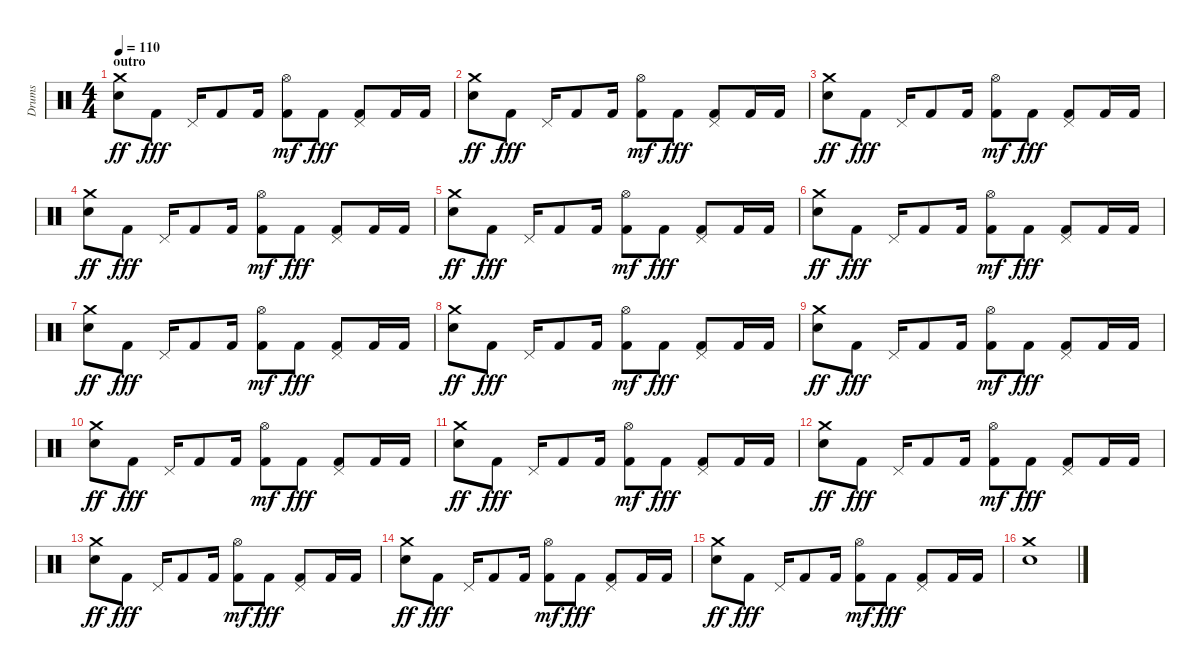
\track ("Drums" "Drums") {instrument percussion}
\staff {score}
\articulation defaults
\ts (4 4)
\section ("" "outro")
\tempo 110
\clef neutral
\ks c
("Electric Snare (hit)" "Crash medium (hit)").8{dy ff} "Kick (hit) 2".8{dy fff} "Pedal Hi-Hat (hit)".16 "Kick (hit) 2".8 "Kick (hit) 2".16 ("Kick (hit) 2" "Hi-Hat (open)").8{dy mf} "Kick (hit) 2".8{dy fff} ("Kick (hit) 2" "Pedal Hi-Hat (hit)").8 "Kick (hit) 2".16 "Kick (hit) 2".16 |
("Electric Snare (hit)" "Crash medium (hit)").8{dy ff} "Kick (hit) 2".8{dy fff} "Pedal Hi-Hat (hit)".16 "Kick (hit) 2".8 "Kick (hit) 2".16 ("Kick (hit) 2" "Hi-Hat (open)").8{dy mf} "Kick (hit) 2".8{dy fff} ("Kick (hit) 2" "Pedal Hi-Hat (hit)").8 "Kick (hit) 2".16 "Kick (hit) 2".16 |
("Electric Snare (hit)" "Crash medium (hit)").8{dy ff} "Kick (hit) 2".8{dy fff} "Pedal Hi-Hat (hit)".16 "Kick (hit) 2".8 "Kick (hit) 2".16 ("Kick (hit) 2" "Hi-Hat (open)").8{dy mf} "Kick (hit) 2".8{dy fff} ("Kick (hit) 2" "Pedal Hi-Hat (hit)").8 "Kick (hit) 2".16 "Kick (hit) 2".16 |
("Electric Snare (hit)" "Crash medium (hit)").8{dy ff} "Kick (hit) 2".8{dy fff} "Pedal Hi-Hat (hit)".16 "Kick (hit) 2".8 "Kick (hit) 2".16 ("Kick (hit) 2" "Hi-Hat (open)").8{dy mf} "Kick (hit) 2".8{dy fff} ("Kick (hit) 2" "Pedal Hi-Hat (hit)").8 "Kick (hit) 2".16 "Kick (hit) 2".16 |
("Electric Snare (hit)" "Crash medium (hit)").8{dy ff} "Kick (hit) 2".8{dy fff} "Pedal Hi-Hat (hit)".16 "Kick (hit) 2".8 "Kick (hit) 2".16 ("Kick (hit) 2" "Hi-Hat (open)").8{dy mf} "Kick (hit) 2".8{dy fff} ("Kick (hit) 2" "Pedal Hi-Hat (hit)").8 "Kick (hit) 2".16 "Kick (hit) 2".16 |
("Electric Snare (hit)" "Crash medium (hit)").8{dy ff} "Kick (hit) 2".8{dy fff} "Pedal Hi-Hat (hit)".16 "Kick (hit) 2".8 "Kick (hit) 2".16 ("Kick (hit) 2" "Hi-Hat (open)").8{dy mf} "Kick (hit) 2".8{dy fff} ("Kick (hit) 2" "Pedal Hi-Hat (hit)").8 "Kick (hit) 2".16 "Kick (hit) 2".16 |
("Electric Snare (hit)" "Crash medium (hit)").8{dy ff} "Kick (hit) 2".8{dy fff} "Pedal Hi-Hat (hit)".16 "Kick (hit) 2".8 "Kick (hit) 2".16 ("Kick (hit) 2" "Hi-Hat (open)").8{dy mf} "Kick (hit) 2".8{dy fff} ("Kick (hit) 2" "Pedal Hi-Hat (hit)").8 "Kick (hit) 2".16 "Kick (hit) 2".16 |
("Electric Snare (hit)" "Crash medium (hit)").8{dy ff} "Kick (hit) 2".8{dy fff} "Pedal Hi-Hat (hit)".16 "Kick (hit) 2".8 "Kick (hit) 2".16 ("Kick (hit) 2" "Hi-Hat (open)").8{dy mf} "Kick (hit) 2".8{dy fff} ("Kick (hit) 2" "Pedal Hi-Hat (hit)").8 "Kick (hit) 2".16 "Kick (hit) 2".16 |
("Electric Snare (hit)" "Crash medium (hit)").8{dy ff} "Kick (hit) 2".8{dy fff} "Pedal Hi-Hat (hit)".16 "Kick (hit) 2".8 "Kick (hit) 2".16 ("Kick (hit) 2" "Hi-Hat (open)").8{dy mf} "Kick (hit) 2".8{dy fff} ("Kick (hit) 2" "Pedal Hi-Hat (hit)").8 "Kick (hit) 2".16 "Kick (hit) 2".16 |
("Electric Snare (hit)" "Crash medium (hit)").8{dy ff} "Kick (hit) 2".8{dy fff} "Pedal Hi-Hat (hit)".16 "Kick (hit) 2".8 "Kick (hit) 2".16 ("Kick (hit) 2" "Hi-Hat (open)").8{dy mf} "Kick (hit) 2".8{dy fff} ("Kick (hit) 2" "Pedal Hi-Hat (hit)").8 "Kick (hit) 2".16 "Kick (hit) 2".16 |
("Electric Snare (hit)" "Crash medium (hit)").8{dy ff} "Kick (hit) 2".8{dy fff} "Pedal Hi-Hat (hit)".16 "Kick (hit) 2".8 "Kick (hit) 2".16 ("Kick (hit) 2" "Hi-Hat (open)").8{dy mf} "Kick (hit) 2".8{dy fff} ("Kick (hit) 2" "Pedal Hi-Hat (hit)").8 "Kick (hit) 2".16 "Kick (hit) 2".16 |
("Electric Snare (hit)" "Crash medium (hit)").8{dy ff} "Kick (hit) 2".8{dy fff} "Pedal Hi-Hat (hit)".16 "Kick (hit) 2".8 "Kick (hit) 2".16 ("Kick (hit) 2" "Hi-Hat (open)").8{dy mf} "Kick (hit) 2".8{dy fff} ("Kick (hit) 2" "Pedal Hi-Hat (hit)").8 "Kick (hit) 2".16 "Kick (hit) 2".16 |
("Electric Snare (hit)" "Crash medium (hit)").8{dy ff} "Kick (hit) 2".8{dy fff} "Pedal Hi-Hat (hit)".16 "Kick (hit) 2".8 "Kick (hit) 2".16 ("Kick (hit) 2" "Hi-Hat (open)").8{dy mf} "Kick (hit) 2".8{dy fff} ("Kick (hit) 2" "Pedal Hi-Hat (hit)").8 "Kick (hit) 2".16 "Kick (hit) 2".16 |
("Electric Snare (hit)" "Crash medium (hit)").8{dy ff} "Kick (hit) 2".8{dy fff} "Pedal Hi-Hat (hit)".16 "Kick (hit) 2".8 "Kick (hit) 2".16 ("Kick (hit) 2" "Hi-Hat (open)").8{dy mf} "Kick (hit) 2".8{dy fff} ("Kick (hit) 2" "Pedal Hi-Hat (hit)").8 "Kick (hit) 2".16 "Kick (hit) 2".16 |
("Electric Snare (hit)" "Crash medium (hit)").8{dy ff} "Kick (hit) 2".8{dy fff} "Pedal Hi-Hat (hit)".16 "Kick (hit) 2".8 "Kick (hit) 2".16 ("Kick (hit) 2" "Hi-Hat (open)").8{dy mf} "Kick (hit) 2".8{dy fff} ("Kick (hit) 2" "Pedal Hi-Hat (hit)").8 "Kick (hit) 2".16 "Kick (hit) 2".16 |
("Electric Snare (hit)" "Crash medium (hit)").1
